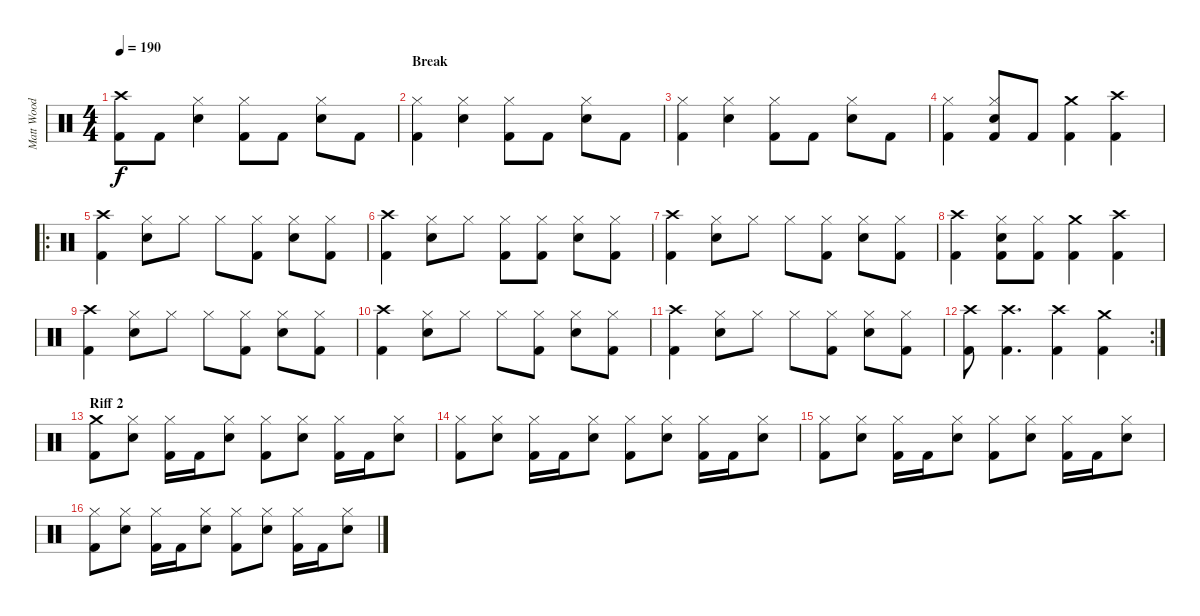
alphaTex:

\track ("Matt Wood" "Matt Wood") {instrument percussion}
\staff {score}
\articulation defaults
\ts (4 4)
\tempo 190
\clef neutral
\ks c
("Crash high (hit)"{t} "Kick (hit) 2"{t}).8{dy f} "Kick (hit) 2".8 ("Hi-Hat (closed)" "Snare (hit) 2").4 ("Hi-Hat (closed)" "Kick (hit) 2").8 "Kick (hit) 2".8 ("Hi-Hat (closed)" "Snare (hit) 2").8 "Kick (hit) 2".8 |
\section ("" "Break")
("Hi-Hat (closed)" "Kick (hit) 2").4 ("Hi-Hat (closed)" "Snare (hit) 2").4 ("Hi-Hat (closed)" "Kick (hit) 2").8 "Kick (hit) 2".8 ("Hi-Hat (closed)" "Snare (hit) 2").8 "Kick (hit) 2".8 |
("Hi-Hat (closed)" "Kick (hit) 2").4 ("Hi-Hat (closed)" "Snare (hit) 2").4 ("Hi-Hat (closed)" "Kick (hit) 2").8 "Kick (hit) 2".8 ("Hi-Hat (closed)" "Snare (hit) 2").8 "Kick (hit) 2".8 |
("Hi-Hat (closed)" "Kick (hit) 2").4 ("Hi-Hat (closed)" "Snare (hit) 2" "Kick (hit) 2").8 "Kick (hit) 2".8 ("Crash medium (hit)" "Kick (hit) 2").4 ("Crash high (hit)" "Kick (hit) 2").4 |
\ro
("Crash high (hit)" "Kick (hit) 2").4 ("Hi-Hat (closed)" "Snare (hit) 2").8 "Hi-Hat (closed)".8 "Hi-Hat (closed)".8 ("Hi-Hat (closed)" "Kick (hit) 2").8 ("Hi-Hat (closed)" "Snare (hit) 2").8 ("Hi-Hat (closed)" "Kick (hit) 2").8 |
("Crash high (hit)" "Kick (hit) 2").4 ("Hi-Hat (closed)" "Snare (hit) 2").8 "Hi-Hat (closed)".8 ("Hi-Hat (closed)" "Kick (hit) 2").8 ("Hi-Hat (closed)" "Kick (hit) 2").8 ("Hi-Hat (closed)" "Snare (hit) 2").8 ("Hi-Hat (closed)" "Kick (hit) 2").8 |
("Crash high (hit)" "Kick (hit) 2").4 ("Hi-Hat (closed)" "Snare (hit) 2").8 "Hi-Hat (closed)".8 "Hi-Hat (closed)".8 ("Hi-Hat (closed)" "Kick (hit) 2").8 ("Hi-Hat (closed)" "Snare (hit) 2").8 ("Hi-Hat (closed)" "Kick (hit) 2").8 |
("Crash high (hit)" "Kick (hit) 2").4 ("Hi-Hat (closed)" "Snare (hit) 2" "Kick (hit) 2").8 ("Hi-Hat (closed)" "Kick (hit) 2").8 ("Crash medium (hit)" "Kick (hit) 2").4 ("Crash high (hit)" "Kick (hit) 2").4 |
("Crash high (hit)" "Kick (hit) 2").4 ("Hi-Hat (closed)" "Snare (hit) 2").8 "Hi-Hat (closed)".8 "Hi-Hat (closed)".8 ("Hi-Hat (closed)" "Kick (hit) 2").8 ("Hi-Hat (closed)" "Snare (hit) 2").8 ("Hi-Hat (closed)" "Kick (hit) 2").8 |
("Crash high (hit)" "Kick (hit) 2").4 ("Hi-Hat (closed)" "Snare (hit) 2").8 "Hi-Hat (closed)".8 "Hi-Hat (closed)".8 ("Hi-Hat (closed)" "Kick (hit) 2").8 ("Hi-Hat (closed)" "Snare (hit) 2").8 ("Hi-Hat (closed)" "Kick (hit) 2").8 |
("Crash high (hit)" "Kick (hit) 2").4 ("Hi-Hat (closed)" "Snare (hit) 2").8 "Hi-Hat (closed)".8 "Hi-Hat (closed)".8 ("Hi-Hat (closed)" "Kick (hit) 2").8 ("Hi-Hat (closed)" "Snare (hit) 2").8 ("Hi-Hat (closed)" "Kick (hit) 2").8 |
\rc 2
("Crash high (hit)" "Kick (hit) 2").8 ("Crash high (hit)" "Kick (hit) 2").4{d} ("Crash high (hit)" "Kick (hit) 2").4 ("Crash medium (hit)" "Kick (hit) 2").4 |
\section ("" "Riff 2")
("Crash medium (hit)" "Kick (hit) 2").8 ("Hi-Hat (closed)" "Snare (hit) 2").8 ("Hi-Hat (closed)" "Kick (hit) 2").16 "Kick (hit) 2".16 ("Hi-Hat (closed)" "Snare (hit) 2").8 ("Hi-Hat (closed)" "Kick (hit) 2").8 ("Hi-Hat (closed)" "Snare (hit) 2").8 ("Hi-Hat (closed)" "Kick (hit) 2").16 "Kick (hit) 2".16 ("Hi-Hat (closed)" "Snare (hit) 2").8 |
("Hi-Hat (closed)" "Kick (hit) 2").8 ("Hi-Hat (closed)" "Snare (hit) 2").8 ("Hi-Hat (closed)" "Kick (hit) 2").16 "Kick (hit) 2".16 ("Hi-Hat (closed)" "Snare (hit) 2").8 ("Hi-Hat (closed)" "Kick (hit) 2").8 ("Hi-Hat (closed)" "Snare (hit) 2").8 ("Hi-Hat (closed)" "Kick (hit) 2").16 "Kick (hit) 2".16 ("Hi-Hat (closed)" "Snare (hit) 2").8 |
("Hi-Hat (closed)" "Kick (hit) 2").8 ("Hi-Hat (closed)" "Snare (hit) 2").8 ("Hi-Hat (closed)" "Kick (hit) 2").16 "Kick (hit) 2".16 ("Hi-Hat (closed)" "Snare (hit) 2").8 ("Hi-Hat (closed)" "Kick (hit) 2").8 ("Hi-Hat (closed)" "Snare (hit) 2").8 ("Hi-Hat (closed)" "Kick (hit) 2").16 "Kick (hit) 2".16 ("Hi-Hat (closed)" "Snare (hit) 2").8 |
("Hi-Hat (closed)" "Kick (hit) 2").8 ("Hi-Hat (closed)" "Snare (hit) 2").8 ("Hi-Hat (closed)" "Kick (hit) 2").16 "Kick (hit) 2".16 ("Hi-Hat (closed)" "Snare (hit) 2").8 ("Hi-Hat (closed)" "Kick (hit) 2").8 ("Hi-Hat (closed)" "Snare (hit) 2").8 ("Hi-Hat (closed)" "Kick (hit) 2").16 "Kick (hit) 2".16 ("Hi-Hat (closed)" "Snare (hit) 2").8
